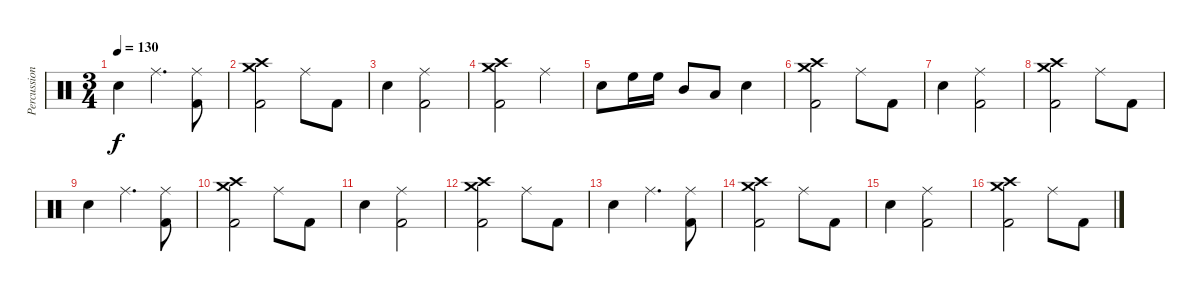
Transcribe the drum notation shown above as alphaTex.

\track ("Percussion" "Percussion") {instrument percussion}
\staff {score}
\articulation defaults
\ts (3 4)
\tempo 130
\clef neutral
\ks c "Snare (hit) 2".4{dy f} "Ride (middle)".4{d}
("Kick (hit) 2" "Ride (middle)").8 |
("Crash high (hit)" "Crash medium (hit)" "Kick (hit) 2").2 "Ride (middle)".8 "Kick (hit) 2".8 |
"Snare (hit) 2".4 ("Kick (hit) 2" "Ride (middle)").2 |
("Crash high (hit)" "Crash medium (hit)" "Kick (hit) 2").2 "Ride (middle)".4 |
"Snare (hit) 2".8 "High Floor Tom (hit)".16 "High Floor Tom (hit)".16 "Mid Tom (hit)".8 "Low Tom (hit)".8 "Snare (hit) 2".4 |
("Crash high (hit)" "Crash medium (hit)" "Kick (hit) 2").2 "Ride (middle)".8 "Kick (hit) 2".8 |
"Snare (hit) 2".4 ("Kick (hit) 2" "Ride (middle)").2 |
("Crash high (hit)" "Crash medium (hit)" "Kick (hit) 2").2 "Ride (middle)".8 "Kick (hit) 2".8 |
"Snare (hit) 2".4 "Ride (middle)".4{d} ("Kick (hit) 2" "Ride (middle)").8 |
("Crash high (hit)" "Crash medium (hit)" "Kick (hit) 2").2 "Ride (middle)".8 "Kick (hit) 2".8 |
"Snare (hit) 2".4 ("Kick (hit) 2" "Ride (middle)").2 |
("Crash high (hit)" "Crash medium (hit)" "Kick (hit) 2").2 "Ride (middle)".8 "Kick (hit) 2".8 |
"Snare (hit) 2".4 "Ride (middle)".4{d} ("Kick (hit) 2" "Ride (middle)").8 |
("Crash high (hit)" "Crash medium (hit)" "Kick (hit) 2").2 "Ride (middle)".8 "Kick (hit) 2".8 |
"Snare (hit) 2".4 ("Kick (hit) 2" "Ride (middle)").2 |
("Crash high (hit)" "Crash medium (hit)" "Kick (hit) 2").2 "Ride (middle)".8 "Kick (hit) 2".8
